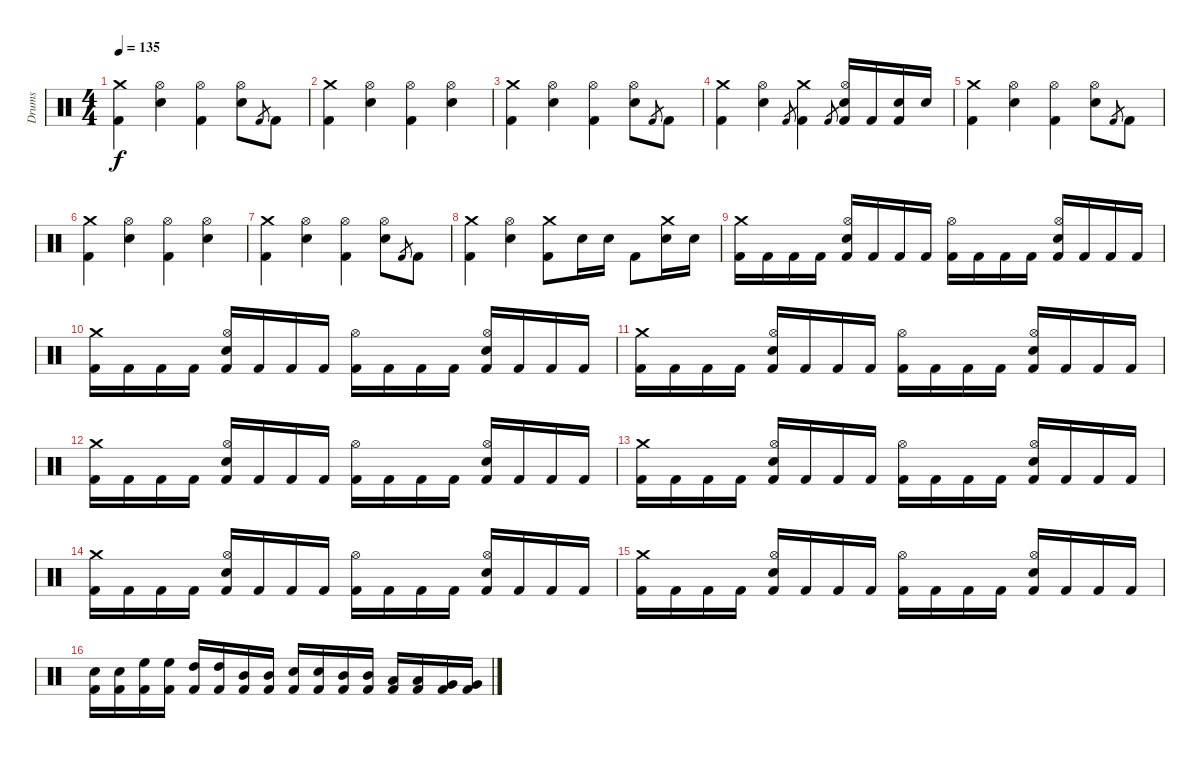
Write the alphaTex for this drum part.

\track ("Drums" "Drums") {instrument percussion}
\staff {score}
\articulation defaults
\ts (4 4)
\tempo 135
\clef neutral
\ks c
("Crash medium (hit)" "Kick (hit) 2").4{dy f} ("Hi-Hat (open)" "Snare (hit) 2").4 ("Hi-Hat (open)" "Kick (hit) 2").4 ("Hi-Hat (open)" "Snare (hit) 2").8 "Kick (hit) 2".8{gr} "Kick (hit) 2".8 |
("Crash medium (hit)" "Kick (hit) 2").4 ("Hi-Hat (open)" "Snare (hit) 2").4 ("Hi-Hat (open)" "Kick (hit) 2").4 ("Hi-Hat (open)" "Snare (hit) 2").4 |
("Crash medium (hit)" "Kick (hit) 2").4 ("Hi-Hat (open)" "Snare (hit) 2").4 ("Hi-Hat (open)" "Kick (hit) 2").4 ("Hi-Hat (open)" "Snare (hit) 2").8 "Kick (hit) 2".8{gr} "Kick (hit) 2".8 |
("Crash medium (hit)" "Kick (hit) 2").4 ("Hi-Hat (open)" "Snare (hit) 2").4 "Kick (hit) 2".8{gr} ("Crash medium (hit)" "Kick (hit) 2").4 "Kick (hit) 2".8{gr} ("Hi-Hat (open)" "Snare (hit) 2" "Kick (hit) 2").16 "Kick (hit) 2".16 ("Snare (hit) 2" "Kick (hit) 2").16 "Snare (hit) 2".16 |
("Crash medium (hit)" "Kick (hit) 2").4 ("Hi-Hat (open)" "Snare (hit) 2").4 ("Hi-Hat (open)" "Kick (hit) 2").4 ("Hi-Hat (open)" "Snare (hit) 2").8 "Kick (hit) 2".8{gr} "Kick (hit) 2".8 |
("Crash medium (hit)" "Kick (hit) 2").4 ("Hi-Hat (open)" "Snare (hit) 2").4 ("Hi-Hat (open)" "Kick (hit) 2").4 ("Hi-Hat (open)" "Snare (hit) 2").4 |
("Crash medium (hit)" "Kick (hit) 2").4 ("Hi-Hat (open)" "Snare (hit) 2").4 ("Hi-Hat (open)" "Kick (hit) 2").4 ("Hi-Hat (open)" "Snare (hit) 2").8 "Kick (hit) 2".8{gr} "Kick (hit) 2".8 |
("Crash medium (hit)" "Kick (hit) 2").4 ("Hi-Hat (open)" "Snare (hit) 2").4 ("Crash medium (hit)" "Kick (hit) 2").8 "Snare (hit) 2".16 "Snare (hit) 2".16 "Kick (hit) 2".8 ("Crash medium (hit)" "Snare (hit) 2").16 "Snare (hit) 2".16 |
("Crash medium (hit)" "Kick (hit) 2").16 "Kick (hit) 2".16 "Kick (hit) 2".16 "Kick (hit) 2".16 ("Hi-Hat (open)" "Snare (hit) 2" "Kick (hit) 2").16 "Kick (hit) 2".16 "Kick (hit) 2".16 "Kick (hit) 2".16 ("Hi-Hat (open)" "Kick (hit) 2").16 "Kick (hit) 2".16 "Kick (hit) 2".16 "Kick (hit) 2".16 ("Hi-Hat (open)" "Snare (hit) 2" "Kick (hit) 2").16 "Kick (hit) 2".16 "Kick (hit) 2".16 "Kick (hit) 2".16 |
("Crash medium (hit)" "Kick (hit) 2").16 "Kick (hit) 2".16 "Kick (hit) 2".16 "Kick (hit) 2".16 ("Hi-Hat (open)" "Snare (hit) 2" "Kick (hit) 2").16 "Kick (hit) 2".16 "Kick (hit) 2".16 "Kick (hit) 2".16 ("Hi-Hat (open)" "Kick (hit) 2").16 "Kick (hit) 2".16 "Kick (hit) 2".16 "Kick (hit) 2".16 ("Hi-Hat (open)" "Snare (hit) 2" "Kick (hit) 2").16 "Kick (hit) 2".16 "Kick (hit) 2".16 "Kick (hit) 2".16 |
("Crash medium (hit)" "Kick (hit) 2").16 "Kick (hit) 2".16 "Kick (hit) 2".16 "Kick (hit) 2".16 ("Hi-Hat (open)" "Snare (hit) 2" "Kick (hit) 2").16 "Kick (hit) 2".16 "Kick (hit) 2".16 "Kick (hit) 2".16 ("Hi-Hat (open)" "Kick (hit) 2").16 "Kick (hit) 2".16 "Kick (hit) 2".16 "Kick (hit) 2".16 ("Hi-Hat (open)" "Snare (hit) 2" "Kick (hit) 2").16 "Kick (hit) 2".16 "Kick (hit) 2".16 "Kick (hit) 2".16 |
("Crash medium (hit)" "Kick (hit) 2").16 "Kick (hit) 2".16 "Kick (hit) 2".16 "Kick (hit) 2".16 ("Hi-Hat (open)" "Snare (hit) 2" "Kick (hit) 2").16 "Kick (hit) 2".16 "Kick (hit) 2".16 "Kick (hit) 2".16 ("Hi-Hat (open)" "Kick (hit) 2").16 "Kick (hit) 2".16 "Kick (hit) 2".16 "Kick (hit) 2".16 ("Hi-Hat (open)" "Snare (hit) 2" "Kick (hit) 2").16 "Kick (hit) 2".16 "Kick (hit) 2".16 "Kick (hit) 2".16 |
("Crash medium (hit)" "Kick (hit) 2").16 "Kick (hit) 2".16 "Kick (hit) 2".16 "Kick (hit) 2".16 ("Hi-Hat (open)" "Snare (hit) 2" "Kick (hit) 2").16 "Kick (hit) 2".16 "Kick (hit) 2".16 "Kick (hit) 2".16 ("Hi-Hat (open)" "Kick (hit) 2").16 "Kick (hit) 2".16 "Kick (hit) 2".16 "Kick (hit) 2".16 ("Hi-Hat (open)" "Snare (hit) 2" "Kick (hit) 2").16 "Kick (hit) 2".16 "Kick (hit) 2".16 "Kick (hit) 2".16 |
("Crash medium (hit)" "Kick (hit) 2").16 "Kick (hit) 2".16 "Kick (hit) 2".16 "Kick (hit) 2".16 ("Hi-Hat (open)" "Snare (hit) 2" "Kick (hit) 2").16 "Kick (hit) 2".16 "Kick (hit) 2".16 "Kick (hit) 2".16 ("Hi-Hat (open)" "Kick (hit) 2").16 "Kick (hit) 2".16 "Kick (hit) 2".16 "Kick (hit) 2".16 ("Hi-Hat (open)" "Snare (hit) 2" "Kick (hit) 2").16 "Kick (hit) 2".16 "Kick (hit) 2".16 "Kick (hit) 2".16 |
("Crash medium (hit)" "Kick (hit) 2").16 "Kick (hit) 2".16 "Kick (hit) 2".16 "Kick (hit) 2".16 ("Hi-Hat (open)" "Snare (hit) 2" "Kick (hit) 2").16 "Kick (hit) 2".16 "Kick (hit) 2".16 "Kick (hit) 2".16 ("Hi-Hat (open)" "Kick (hit) 2").16 "Kick (hit) 2".16 "Kick (hit) 2".16 "Kick (hit) 2".16 ("Hi-Hat (open)" "Snare (hit) 2" "Kick (hit) 2").16 "Kick (hit) 2".16 "Kick (hit) 2".16 "Kick (hit) 2".16 |
("Snare (hit) 2" "Kick (hit) 2").16 ("Snare (hit) 2" "Kick (hit) 2").16 ("High Floor Tom (hit)" "Kick (hit) 2").16 ("High Floor Tom (hit)" "Kick (hit) 2").16 ("High Tom (hit)" "Kick (hit) 2").16 ("High Tom (hit)" "Kick (hit) 2").16 ("Mid Tom (hit)" "Kick (hit) 2").16 ("Mid Tom (hit)" "Kick (hit) 2").16 ("Snare (hit) 2" "Kick (hit) 2").16 ("Snare (hit) 2" "Kick (hit) 2").16 ("Mid Tom (hit)" "Kick (hit) 2").16 ("Mid Tom (hit)" "Kick (hit) 2").16 ("Low Tom (hit)" "Kick (hit) 2").16 ("Low Tom (hit)" "Kick (hit) 2").16 ("Very Low Tom (hit)" "Kick (hit) 2").16 ("Very Low Tom (hit)" "Kick (hit) 2").16
